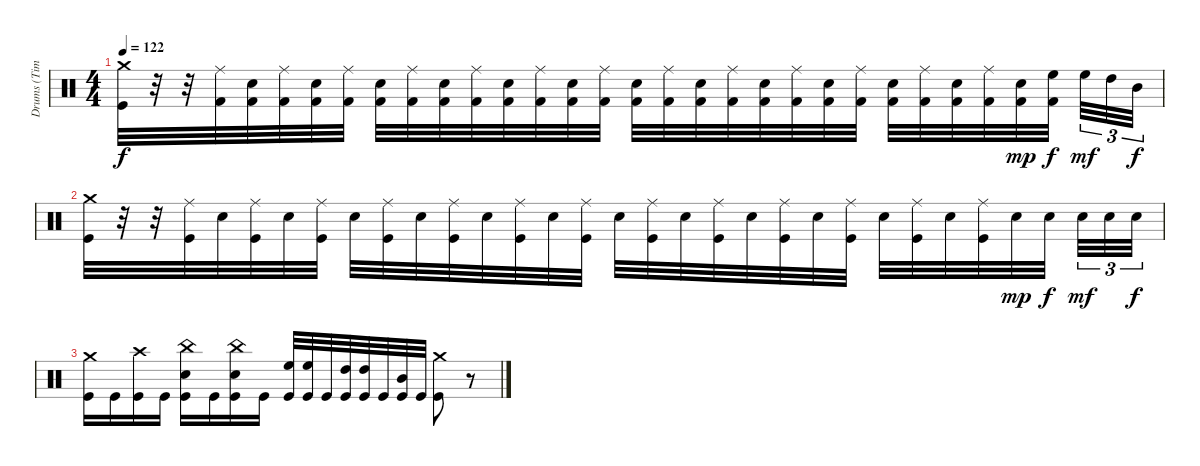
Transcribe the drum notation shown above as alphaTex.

\track ("Drums (Tim Yeung)" "Drums (Tim") {instrument percussion}
\staff {score}
\articulation defaults
\ts (4 4)
\tempo 122
\clef neutral
\ks c
("Crash medium (hit)" "Kick (hit)").32{dy f} r.32 r.32 ("Ride (middle)" "Kick (hit) 2").32 ("Electric Snare (hit)" "Kick (hit) 2").32 ("Ride (middle)" "Kick (hit) 2").32 ("Electric Snare (hit)" "Kick (hit) 2").32 ("Ride (middle)" "Kick (hit) 2").32 ("Electric Snare (hit)" "Kick (hit) 2").32 ("Ride (middle)" "Kick (hit) 2").32 ("Electric Snare (hit)" "Kick (hit) 2").32 ("Ride (middle)" "Kick (hit) 2").32 ("Electric Snare (hit)" "Kick (hit) 2").32 ("Ride (middle)" "Kick (hit) 2").32 ("Electric Snare (hit)" "Kick (hit) 2").32 ("Ride (middle)" "Kick (hit) 2").32 ("Electric Snare (hit)" "Kick (hit) 2").32 ("Ride (middle)" "Kick (hit) 2").32 ("Electric Snare (hit)" "Kick (hit) 2").32 ("Ride (middle)" "Kick (hit) 2").32 ("Electric Snare (hit)" "Kick (hit) 2").32 ("Ride (middle)" "Kick (hit) 2").32 ("Electric Snare (hit)" "Kick (hit) 2").32 ("Ride (middle)" "Kick (hit) 2").32 ("Electric Snare (hit)" "Kick (hit) 2").32 ("Ride (middle)" "Kick (hit) 2").32 ("Electric Snare (hit)" "Kick (hit) 2").32 ("Ride (middle)" "Kick (hit) 2").32 ("Electric Snare (hit)" "Kick (hit) 2").32{dy mp} ("High Floor Tom (hit)" "Kick (hit) 2").32{dy f} "High Floor Tom (hit)".32{tu (3 2) dy mf} "High Tom (hit)".32{tu (3 2)} "Mid Tom (hit)".32{tu (3 2) dy f} |
("Crash medium (hit)" "Kick (hit)").32 r.32 r.32 ("Ride (middle)" "Kick (hit)").32 "Electric Snare (hit)".32 ("Ride (middle)" "Kick (hit)").32 "Electric Snare (hit)".32 ("Ride (middle)" "Kick (hit)").32 "Electric Snare (hit)".32 ("Ride (middle)" "Kick (hit)").32 "Electric Snare (hit)".32 ("Ride (middle)" "Kick (hit)").32 "Electric Snare (hit)".32 ("Ride (middle)" "Kick (hit)").32 "Electric Snare (hit)".32 ("Ride (middle)" "Kick (hit)").32 "Electric Snare (hit)".32 ("Ride (middle)" "Kick (hit)").32 "Electric Snare (hit)".32 ("Ride (middle)" "Kick (hit)").32 "Electric Snare (hit)".32 ("Ride (middle)" "Kick (hit)").32 "Electric Snare (hit)".32 ("Ride (middle)" "Kick (hit)").32 "Electric Snare (hit)".32 ("Ride (middle)" "Kick (hit)").32 "Electric Snare (hit)".32 ("Ride (middle)" "Kick (hit)").32 "Electric Snare (hit)".32{dy mp} "Electric Snare (hit)".32{dy f} "Electric Snare (hit)".32{tu (3 2) dy mf} "Electric Snare (hit)".32{tu (3 2)} "Electric Snare (hit)".32{tu (3 2) dy f} |
("Crash medium (hit)" "Kick (hit)").16 "Kick (hit)".16 ("Crash high (hit)" "Kick (hit)").16 "Kick (hit)".16 ("China (hit)" "Electric Snare (hit)" "Kick (hit)").16 "Kick (hit)".16 ("China (hit)" "Electric Snare (hit)" "Kick (hit)").16 "Kick (hit)".16 ("High Floor Tom (hit)" "Kick (hit)").32 ("High Floor Tom (hit)" "Kick (hit)").32 "Kick (hit)".32 ("High Tom (hit)" "Kick (hit)").32 ("High Tom (hit)" "Kick (hit)").32 "Kick (hit)".32 ("Mid Tom (hit)" "Kick (hit)").32 "Kick (hit)".32 ("Crash medium (hit)" "Kick (hit)").8 r.8
